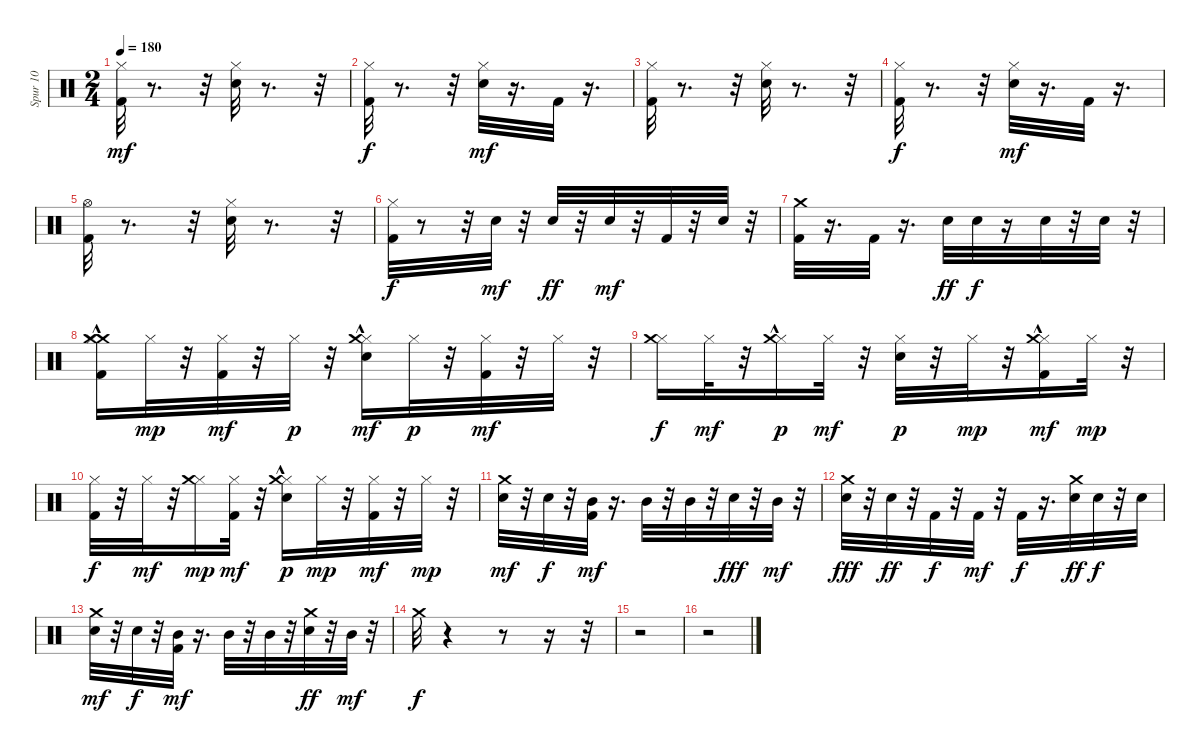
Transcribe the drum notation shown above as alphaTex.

\track ("Spur 10" "Spur 10") {instrument percussion}
\staff {score}
\articulation defaults
\ts (2 4)
\tempo 180
\clef neutral
\ks c
("Hi-Hat (closed)" "Kick (hit) 2").32{dy mf} r.8{d} r.32 ("Electric Snare (hit)" "Hi-Hat (closed)").32 r.8{d} r.32 |
("Hi-Hat (closed)" "Kick (hit) 2").32{dy f} r.8{d} r.32 ("Electric Snare (hit)" "Hi-Hat (closed)").32{dy mf} r.16{d} "Kick (hit) 2".32 r.16{d} |
("Hi-Hat (closed)" "Kick (hit) 2").32 r.8{d} r.32 ("Electric Snare (hit)" "Hi-Hat (closed)").32 r.8{d} r.32 |
("Hi-Hat (closed)" "Kick (hit) 2").32{dy f} r.8{d} r.32 ("Electric Snare (hit)" "Hi-Hat (closed)").32{dy mf} r.16{d} "Kick (hit) 2".32 r.16{d} |
("Hi-Hat (open)" "Kick (hit) 2").32 r.8{d} r.32 ("Electric Snare (hit)" "Hi-Hat (closed)").32 r.8{d} r.32 |
("Hi-Hat (closed)" "Kick (hit) 2").32{dy f} r.8 r.32 "Electric Snare (hit)".32{dy mf} r.32 "Electric Snare (hit)".32{dy ff} r.32 "Electric Snare (hit)".32{dy mf} r.32 "Kick (hit) 2".32 r.32 "Electric Snare (hit)".32 r.32 |
("Crash medium (hit)" "Kick (hit) 2").32 r.16{d} "Kick (hit) 2".32 r.16{d} "Electric Snare (hit)".32{dy ff} "Electric Snare (hit)".32{dy f} r.16 "Electric Snare (hit)".32 r.32 "Electric Snare (hit)".32 r.32 |
("Crash medium (hit)" "Hi-Hat (closed)" "Crash medium (hit)"{hac} "Kick (hit) 2").16 "Hi-Hat (closed)".32{dy mp} r.32 ("Hi-Hat (closed)" "Kick (hit) 2").32{dy mf} r.32 "Hi-Hat (closed)".32{dy p} r.32 ("Electric Snare (hit)" "Hi-Hat (closed)" "Crash medium (hit)"{hac}).16{dy mf} "Hi-Hat (closed)".32{dy p} r.32 ("Hi-Hat (closed)" "Kick (hit) 2").32{dy mf} r.32 "Hi-Hat (closed)".32 r.32 |
("Hi-Hat (closed)" "Crash medium (hit)").16{dy f} "Hi-Hat (closed)".32{dy mf} r.32 ("Hi-Hat (closed)" "Crash medium (hit)"{hac}).16{dy p} "Hi-Hat (closed)".32{dy mf} r.32 ("Electric Snare (hit)" "Hi-Hat (closed)").32{dy p} r.32 "Hi-Hat (closed)".32{dy mp} r.32 ("Hi-Hat (closed)" "Crash medium (hit)"{hac} "Kick (hit) 2").16{dy mf} "Hi-Hat (closed)".32{dy mp} r.32 |
("Hi-Hat (closed)" "Kick (hit) 2").32{dy f} r.32 "Hi-Hat (closed)".32{dy mf} r.32 ("Hi-Hat (closed)" "Crash medium (hit)").16{dy mp} ("Hi-Hat (closed)" "Kick (hit) 2").32{dy mf} r.32 ("Electric Snare (hit)" "Hi-Hat (closed)" "Crash medium (hit)"{hac}).16{dy p} "Hi-Hat (closed)".32{dy mp} r.32 ("Hi-Hat (closed)" "Kick (hit) 2").32{dy mf} r.32 "Hi-Hat (closed)".32{dy mp} r.32 |
("Electric Snare (hit)" "Crash medium (hit)").32{dy mf} r.32 "Electric Snare (hit)".32{dy f} r.32 ("Mid Tom (hit)" "Kick (hit) 2").32{dy mf} r.16{d} "Mid Tom (hit)".32 r.32 "Mid Tom (hit)".32 r.32 "Electric Snare (hit)".32{dy fff} r.32 "Mid Tom (hit)".32{dy mf} r.32 |
("Crash medium (hit)" "Electric Snare (hit)").32{dy fff} r.32 "Electric Snare (hit)".32{dy ff} r.32 "Kick (hit) 2".32{dy f} r.32 "Kick (hit) 2".32{dy mf} r.32 "Kick (hit) 2".32{dy f} r.16{d} ("Electric Snare (hit)" "Crash medium (hit)").32{dy ff} "Electric Snare (hit)".32{dy f} r.32 "Electric Snare (hit)".32 |
("Crash medium (hit)" "Electric Snare (hit)").32{dy mf} r.32 "Electric Snare (hit)".32{dy f} r.32 ("Mid Tom (hit)" "Kick (hit) 2").32{dy mf} r.16{d} "Mid Tom (hit)".32 r.32 "Mid Tom (hit)".32 r.32 ("Electric Snare (hit)" "Crash medium (hit)").32{dy ff} r.32 "Mid Tom (hit)".32{dy mf} r.32 |
"Crash medium (hit)".32{dy f} r.4 r.8 r.16 r.32 |
r.2 |
r.2
